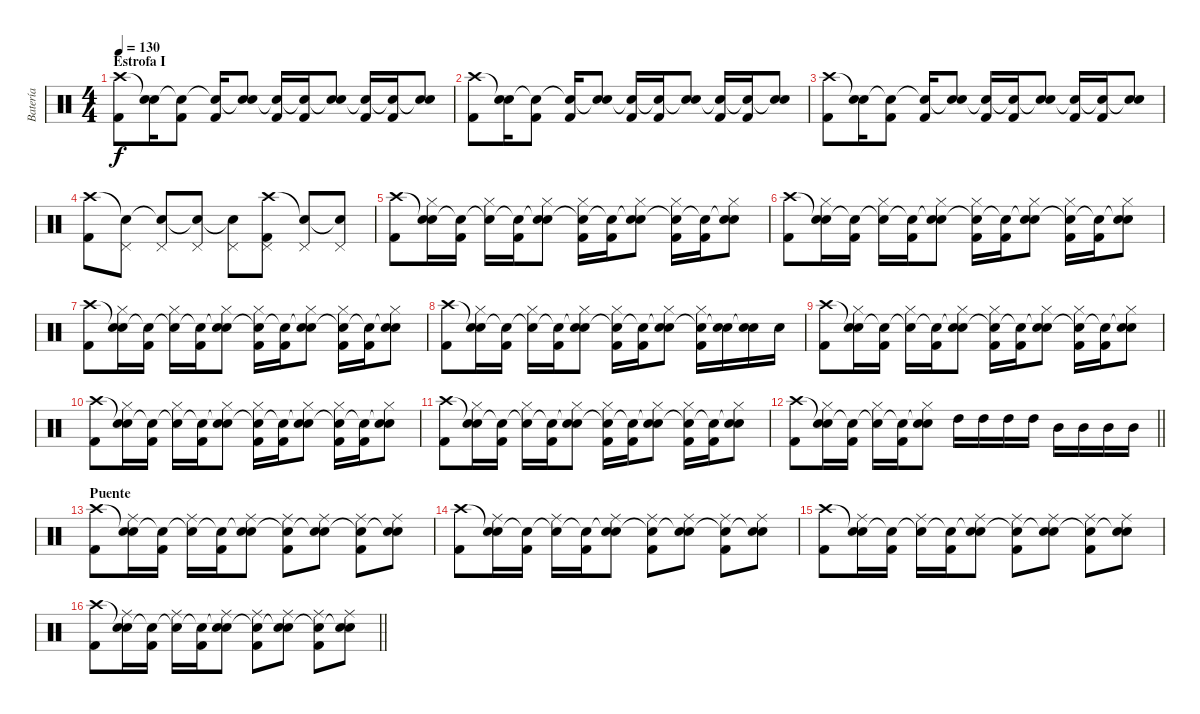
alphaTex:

\track ("Batería" "Batería") {instrument percussion}
\staff {score}
\articulation defaults
\ts (4 4)
\section ("" "Estrofa I")
\tempo 130
\clef neutral
\ks c
("Crash high (hit)" "Kick (hit) 2").8{dy f} ("Snare (hit)"{t} "Snare (hit) 2").16 ("Snare (hit)"{t} "Kick (hit) 2").8 ("Snare (hit)"{t} "Kick (hit) 2").16 ("Snare (hit)"{t} "Snare (hit) 2").8 ("Snare (hit)"{t} "Kick (hit) 2").16 ("Snare (hit)"{t} "Kick (hit) 2").16 ("Snare (hit)"{t} "Snare (hit) 2").8 ("Snare (hit)"{t} "Kick (hit) 2").16 ("Snare (hit)"{t} "Kick (hit) 2").16 ("Snare (hit)"{t} "Snare (hit) 2").8 |
("Crash high (hit)" "Kick (hit) 2").8 ("Snare (hit)"{t} "Snare (hit) 2").16 ("Snare (hit)"{t} "Kick (hit) 2").8 ("Snare (hit)"{t} "Kick (hit) 2").16 ("Snare (hit)"{t} "Snare (hit) 2").8 ("Snare (hit)"{t} "Kick (hit) 2").16 ("Snare (hit)"{t} "Kick (hit) 2").16 ("Snare (hit)"{t} "Snare (hit) 2").8 ("Snare (hit)"{t} "Kick (hit) 2").16 ("Snare (hit)"{t} "Kick (hit) 2").16 ("Snare (hit)"{t} "Snare (hit) 2").8 |
("Crash high (hit)" "Kick (hit) 2").8 ("Snare (hit)"{t} "Snare (hit) 2").16 ("Snare (hit)"{t} "Kick (hit) 2").8 ("Snare (hit)"{t} "Kick (hit) 2").16 ("Snare (hit)"{t} "Snare (hit) 2").8 ("Snare (hit)"{t} "Kick (hit) 2").16 ("Snare (hit)"{t} "Kick (hit) 2").16 ("Snare (hit)"{t} "Snare (hit) 2").8 ("Snare (hit)"{t} "Kick (hit) 2").16 ("Snare (hit)"{t} "Kick (hit) 2").16 ("Snare (hit)"{t} "Snare (hit) 2").8 |
("Crash high (hit)" "Kick (hit) 2").8 ("Snare (hit)"{t} "Pedal Hi-Hat (hit)").8 ("Snare (hit)"{t} "Pedal Hi-Hat (hit)").8 ("Snare (hit)"{t} "Pedal Hi-Hat (hit)").8 ("Snare (hit)"{t} "Pedal Hi-Hat (hit)").8 ("Crash high (hit)" "Pedal Hi-Hat (hit)" "Kick (hit) 2").8 ("Snare (hit)"{t} "Pedal Hi-Hat (hit)").8 ("Snare (hit)"{t} "Pedal Hi-Hat (hit)").8 |
("Crash high (hit)" "Kick (hit) 2").8 ("Snare (hit)"{t} "Hi-Hat (closed)" "Snare (hit) 2").16 ("Snare (hit)"{t} "Kick (hit) 2").16 ("Snare (hit)"{t} "Hi-Hat (closed)").16 ("Snare (hit)"{t} "Kick (hit) 2").16 ("Snare (hit)"{t} "Hi-Hat (closed)" "Snare (hit) 2").8 ("Snare (hit)"{t} "Hi-Hat (closed)" "Kick (hit) 2").16 ("Snare (hit)"{t} "Kick (hit) 2").16 ("Snare (hit)"{t} "Hi-Hat (closed)" "Snare (hit) 2").8 ("Snare (hit)"{t} "Hi-Hat (closed)" "Kick (hit) 2").16 ("Snare (hit)"{t} "Kick (hit) 2").16 ("Snare (hit)"{t} "Hi-Hat (closed)" "Snare (hit) 2").8 |
("Crash high (hit)" "Kick (hit) 2").8 ("Snare (hit)"{t} "Hi-Hat (closed)" "Snare (hit) 2").16 ("Snare (hit)"{t} "Kick (hit) 2").16 ("Snare (hit)"{t} "Hi-Hat (closed)").16 ("Snare (hit)"{t} "Kick (hit) 2").16 ("Snare (hit)"{t} "Hi-Hat (closed)" "Snare (hit) 2").8 ("Snare (hit)"{t} "Hi-Hat (closed)" "Kick (hit) 2").16 ("Snare (hit)"{t} "Kick (hit) 2").16 ("Snare (hit)"{t} "Hi-Hat (closed)" "Snare (hit) 2").8 ("Snare (hit)"{t} "Hi-Hat (closed)" "Kick (hit) 2").16 ("Snare (hit)"{t} "Kick (hit) 2").16 ("Snare (hit)"{t} "Hi-Hat (closed)" "Snare (hit) 2").8 |
("Crash high (hit)" "Kick (hit) 2").8 ("Snare (hit)"{t} "Hi-Hat (closed)" "Snare (hit) 2").16 ("Snare (hit)"{t} "Kick (hit) 2").16 ("Snare (hit)"{t} "Hi-Hat (closed)").16 ("Snare (hit)"{t} "Kick (hit) 2").16 ("Snare (hit)"{t} "Hi-Hat (closed)" "Snare (hit) 2").8 ("Snare (hit)"{t} "Hi-Hat (closed)" "Kick (hit) 2").16 ("Snare (hit)"{t} "Kick (hit) 2").16 ("Snare (hit)"{t} "Hi-Hat (closed)" "Snare (hit) 2").8 ("Snare (hit)"{t} "Hi-Hat (closed)" "Kick (hit) 2").16 ("Snare (hit)"{t} "Kick (hit) 2").16 ("Snare (hit)"{t} "Hi-Hat (closed)" "Snare (hit) 2").8 |
("Crash high (hit)" "Kick (hit) 2").8 ("Snare (hit)"{t} "Hi-Hat (closed)" "Snare (hit) 2").16 ("Snare (hit)"{t} "Kick (hit) 2").16 ("Snare (hit)"{t} "Hi-Hat (closed)").16 ("Snare (hit)"{t} "Kick (hit) 2").16 ("Snare (hit)"{t} "Hi-Hat (closed)" "Snare (hit) 2").8 ("Snare (hit)"{t} "Hi-Hat (closed)" "Kick (hit) 2").16 ("Snare (hit)"{t} "Kick (hit) 2").16 ("Snare (hit)"{t} "Hi-Hat (closed)" "Snare (hit) 2").8 ("Snare (hit)"{t} "Hi-Hat (closed)" "Kick (hit) 2").16 ("Snare (hit)"{t} "Snare (hit) 2").16 ("Snare (hit)"{t} "Snare (hit) 2").16 "Snare (hit) 2".16 |
("Crash high (hit)" "Kick (hit) 2").8 ("Snare (hit)"{t} "Hi-Hat (closed)" "Snare (hit) 2").16 ("Snare (hit)"{t} "Kick (hit) 2").16 ("Snare (hit)"{t} "Hi-Hat (closed)").16 ("Snare (hit)"{t} "Kick (hit) 2").16 ("Snare (hit)"{t} "Hi-Hat (closed)" "Snare (hit) 2").8 ("Snare (hit)"{t} "Hi-Hat (closed)" "Kick (hit) 2").16 ("Snare (hit)"{t} "Kick (hit) 2").16 ("Snare (hit)"{t} "Hi-Hat (closed)" "Snare (hit) 2").8 ("Snare (hit)"{t} "Hi-Hat (closed)" "Kick (hit) 2").16 ("Snare (hit)"{t} "Kick (hit) 2").16 ("Snare (hit)"{t} "Hi-Hat (closed)" "Snare (hit) 2").8 |
("Crash high (hit)" "Kick (hit) 2").8 ("Snare (hit)"{t} "Hi-Hat (closed)" "Snare (hit) 2").16 ("Snare (hit)"{t} "Kick (hit) 2").16 ("Snare (hit)"{t} "Hi-Hat (closed)").16 ("Snare (hit)"{t} "Kick (hit) 2").16 ("Snare (hit)"{t} "Hi-Hat (closed)" "Snare (hit) 2").8 ("Snare (hit)"{t} "Hi-Hat (closed)" "Kick (hit) 2").16 ("Snare (hit)"{t} "Kick (hit) 2").16 ("Snare (hit)"{t} "Hi-Hat (closed)" "Snare (hit) 2").8 ("Snare (hit)"{t} "Hi-Hat (closed)" "Kick (hit) 2").16 ("Snare (hit)"{t} "Kick (hit) 2").16 ("Snare (hit)"{t} "Hi-Hat (closed)" "Snare (hit) 2").8 |
("Crash high (hit)" "Kick (hit) 2").8 ("Snare (hit)"{t} "Hi-Hat (closed)" "Snare (hit) 2").16 ("Snare (hit)"{t} "Kick (hit) 2").16 ("Snare (hit)"{t} "Hi-Hat (closed)").16 ("Snare (hit)"{t} "Kick (hit) 2").16 ("Snare (hit)"{t} "Hi-Hat (closed)" "Snare (hit) 2").8 ("Snare (hit)"{t} "Hi-Hat (closed)" "Kick (hit) 2").16 ("Snare (hit)"{t} "Kick (hit) 2").16 ("Snare (hit)"{t} "Hi-Hat (closed)" "Snare (hit) 2").8 ("Snare (hit)"{t} "Hi-Hat (closed)" "Kick (hit) 2").16 ("Snare (hit)"{t} "Kick (hit) 2").16 ("Snare (hit)"{t} "Hi-Hat (closed)" "Snare (hit) 2").8 |
\barLineRight lightlight
("Crash high (hit)" "Kick (hit) 2").8 ("Snare (hit)"{t} "Hi-Hat (closed)" "Snare (hit) 2").16 ("Snare (hit)"{t} "Kick (hit) 2").16 ("Snare (hit)"{t} "Hi-Hat (closed)").16 ("Snare (hit)"{t} "Kick (hit) 2").16 ("Snare (hit)"{t} "Hi-Hat (closed)" "Snare (hit) 2").8 "High Tom (hit)".16 "High Tom (hit)".16 "High Tom (hit)".16 "High Tom (hit)".16 "Mid Tom (hit)".16 "Mid Tom (hit)".16 "Mid Tom (hit)".16 "Mid Tom (hit)".16 |
\section ("" "Puente")
("Crash high (hit)" "Kick (hit) 2").8 ("Snare (hit)"{t} "Ride (middle)" "Snare (hit) 2").16 ("Snare (hit)"{t} "Kick (hit) 2").16 ("Snare (hit)"{t} "Ride (middle)").16 ("Snare (hit)"{t} "Kick (hit) 2").16 ("Snare (hit)"{t} "Ride (middle)" "Snare (hit) 2").8 ("Snare (hit)"{t} "Ride (middle)" "Kick (hit) 2").8 ("Snare (hit)"{t} "Ride (middle)" "Snare (hit) 2").8 ("Snare (hit)"{t} "Ride (middle)" "Kick (hit) 2").8 ("Snare (hit)"{t} "Ride (middle)" "Snare (hit) 2").8 |
("Crash high (hit)" "Kick (hit) 2").8 ("Snare (hit)"{t} "Ride (middle)" "Snare (hit) 2").16 ("Snare (hit)"{t} "Kick (hit) 2").16 ("Snare (hit)"{t} "Ride (middle)").16 ("Snare (hit)"{t} "Kick (hit) 2").16 ("Snare (hit)"{t} "Ride (middle)" "Snare (hit) 2").8 ("Snare (hit)"{t} "Ride (middle)" "Kick (hit) 2").8 ("Snare (hit)"{t} "Ride (middle)" "Snare (hit) 2").8 ("Snare (hit)"{t} "Ride (middle)" "Kick (hit) 2").8 ("Snare (hit)"{t} "Ride (middle)" "Snare (hit) 2").8 |
("Crash high (hit)" "Kick (hit) 2").8 ("Snare (hit)"{t} "Ride (middle)" "Snare (hit) 2").16 ("Snare (hit)"{t} "Kick (hit) 2").16 ("Snare (hit)"{t} "Ride (middle)").16 ("Snare (hit)"{t} "Kick (hit) 2").16 ("Snare (hit)"{t} "Ride (middle)" "Snare (hit) 2").8 ("Snare (hit)"{t} "Ride (middle)" "Kick (hit) 2").8 ("Snare (hit)"{t} "Ride (middle)" "Snare (hit) 2").8 ("Snare (hit)"{t} "Ride (middle)" "Kick (hit) 2").8 ("Snare (hit)"{t} "Ride (middle)" "Snare (hit) 2").8 |
\barLineRight lightlight
("Crash high (hit)" "Kick (hit) 2").8 ("Snare (hit)"{t} "Ride (middle)" "Snare (hit) 2").16 ("Snare (hit)"{t} "Kick (hit) 2").16 ("Snare (hit)"{t} "Ride (middle)").16 ("Snare (hit)"{t} "Kick (hit) 2").16 ("Snare (hit)"{t} "Ride (middle)" "Snare (hit) 2").8 ("Snare (hit)"{t} "Ride (middle)" "Kick (hit) 2").8 ("Snare (hit)"{t} "Ride (middle)" "Snare (hit) 2").8 ("Snare (hit)"{t} "Ride (middle)" "Kick (hit) 2").8 ("Snare (hit)"{t} "Ride (middle)" "Snare (hit) 2").8
